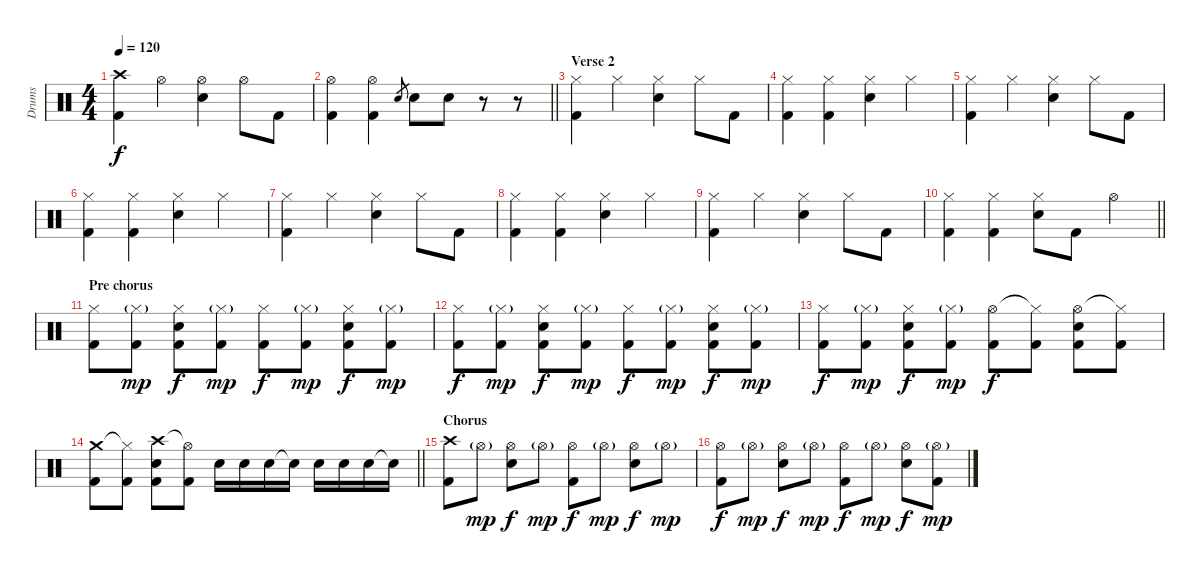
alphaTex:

\track ("Drums" "Drums") {instrument percussion}
\staff {score}
\articulation defaults
\ts (4 4)
\tempo 120
\clef neutral
\ks c
("Crash high (hit)" "Kick (hit) 2").4{dy f} "Hi-Hat (open)".4 ("Hi-Hat (open)" "Electric Snare (hit)").4 "Hi-Hat (open)".8 "Kick (hit) 2".8 |
\barLineRight lightlight
("Hi-Hat (open)" "Kick (hit) 2").4 ("Hi-Hat (open)" "Kick (hit) 2").4 "Electric Snare (hit)".8{gr} "Electric Snare (hit)".8 "Electric Snare (hit)".8 r.8 r.8 |
\section ("" "Verse 2")
("Hi-Hat (closed)" "Kick (hit) 2").4 "Hi-Hat (closed)".4 ("Hi-Hat (closed)" "Electric Snare (hit)").4 "Hi-Hat (closed)".8 "Kick (hit) 2".8 |
("Hi-Hat (closed)" "Kick (hit) 2").4 ("Hi-Hat (closed)" "Kick (hit) 2").4 ("Hi-Hat (closed)" "Electric Snare (hit)").4 "Hi-Hat (closed)".4 |
("Hi-Hat (closed)" "Kick (hit) 2").4 "Hi-Hat (closed)".4 ("Hi-Hat (closed)" "Electric Snare (hit)").4 "Hi-Hat (closed)".8 "Kick (hit) 2".8 |
("Hi-Hat (closed)" "Kick (hit) 2").4 ("Hi-Hat (closed)" "Kick (hit) 2").4 ("Hi-Hat (closed)" "Electric Snare (hit)").4 "Hi-Hat (closed)".4 |
("Hi-Hat (closed)" "Kick (hit) 2").4 "Hi-Hat (closed)".4 ("Hi-Hat (closed)" "Electric Snare (hit)").4 "Hi-Hat (closed)".8 "Kick (hit) 2".8 |
("Hi-Hat (closed)" "Kick (hit) 2").4 ("Hi-Hat (closed)" "Kick (hit) 2").4 ("Hi-Hat (closed)" "Electric Snare (hit)").4 "Hi-Hat (closed)".4 |
("Hi-Hat (closed)" "Kick (hit) 2").4 "Hi-Hat (closed)".4 ("Hi-Hat (closed)" "Electric Snare (hit)").4 "Hi-Hat (closed)".8 "Kick (hit) 2".8 |
\barLineRight lightlight
("Hi-Hat (closed)" "Kick (hit) 2").4 ("Hi-Hat (closed)" "Kick (hit) 2").4 ("Hi-Hat (closed)" "Electric Snare (hit)").8 "Kick (hit) 2".8 "Hi-Hat (open)".4 |
\section ("" "Pre chorus")
("Hi-Hat (closed)" "Kick (hit) 2").8 ("Hi-Hat (closed)"{g} "Kick (hit) 2").8{dy mp} ("Hi-Hat (closed)" "Electric Snare (hit)" "Kick (hit) 2").8{dy f} ("Hi-Hat (closed)"{g} "Kick (hit) 2").8{dy mp} ("Hi-Hat (closed)" "Kick (hit) 2").8{dy f} ("Hi-Hat (closed)"{g} "Kick (hit) 2").8{dy mp} ("Hi-Hat (closed)" "Electric Snare (hit)" "Kick (hit) 2").8{dy f} ("Hi-Hat (closed)"{g} "Kick (hit) 2").8{dy mp} |
("Hi-Hat (closed)" "Kick (hit) 2").8{dy f} ("Hi-Hat (closed)"{g} "Kick (hit) 2").8{dy mp} ("Hi-Hat (closed)" "Electric Snare (hit)" "Kick (hit) 2").8{dy f} ("Hi-Hat (closed)"{g} "Kick (hit) 2").8{dy mp} ("Hi-Hat (closed)" "Kick (hit) 2").8{dy f} ("Hi-Hat (closed)"{g} "Kick (hit) 2").8{dy mp} ("Hi-Hat (closed)" "Electric Snare (hit)" "Kick (hit) 2").8{dy f} ("Hi-Hat (closed)"{g} "Kick (hit) 2").8{dy mp} |
("Hi-Hat (closed)" "Kick (hit) 2").8{dy f} ("Hi-Hat (closed)"{g} "Kick (hit) 2").8{dy mp} ("Hi-Hat (closed)" "Electric Snare (hit)" "Kick (hit) 2").8{dy f} ("Hi-Hat (closed)"{g} "Kick (hit) 2").8{dy mp} ("Hi-Hat (open)" "Kick (hit) 2").8{dy f} ("Hi-Hat (closed)"{t} "Kick (hit) 2").8 ("Hi-Hat (open)" "Electric Snare (hit)" "Kick (hit) 2").8 ("Hi-Hat (closed)"{t} "Kick (hit) 2").8 |
\barLineRight lightlight
("Crash medium (hit)" "Kick (hit) 2").8 ("Hi-Hat (closed)"{t} "Kick (hit) 2").8 ("Crash high (hit)" "Electric Snare (hit)" "Kick (hit) 2").8 ("Hi-Hat (open)"{t} "Kick (hit) 2").8 "Electric Snare (hit)".16 "Electric Snare (hit)".16 "Electric Snare (hit)".16 "Snare (hit)"{t}.16 "Electric Snare (hit)".16 "Electric Snare (hit)".16 "Electric Snare (hit)".16 "Snare (hit)"{t}.16 |
\section ("" "Chorus")
("Crash high (hit)" "Kick (hit) 2").8 "Hi-Hat (open)"{g}.8{dy mp} ("Hi-Hat (open)" "Electric Snare (hit)").8{dy f} "Hi-Hat (open)"{g}.8{dy mp} ("Hi-Hat (open)" "Kick (hit) 2").8{dy f} "Hi-Hat (open)"{g}.8{dy mp} ("Hi-Hat (open)" "Electric Snare (hit)").8{dy f} "Hi-Hat (open)"{g}.8{dy mp} |
("Hi-Hat (open)" "Kick (hit) 2").8{dy f} "Hi-Hat (open)"{g}.8{dy mp} ("Hi-Hat (open)" "Electric Snare (hit)").8{dy f} "Hi-Hat (open)"{g}.8{dy mp} ("Hi-Hat (open)" "Kick (hit) 2").8{dy f} "Hi-Hat (open)"{g}.8{dy mp} ("Hi-Hat (open)" "Electric Snare (hit)").8{dy f} ("Hi-Hat (open)"{g} "Kick (hit) 2").8{dy mp}
